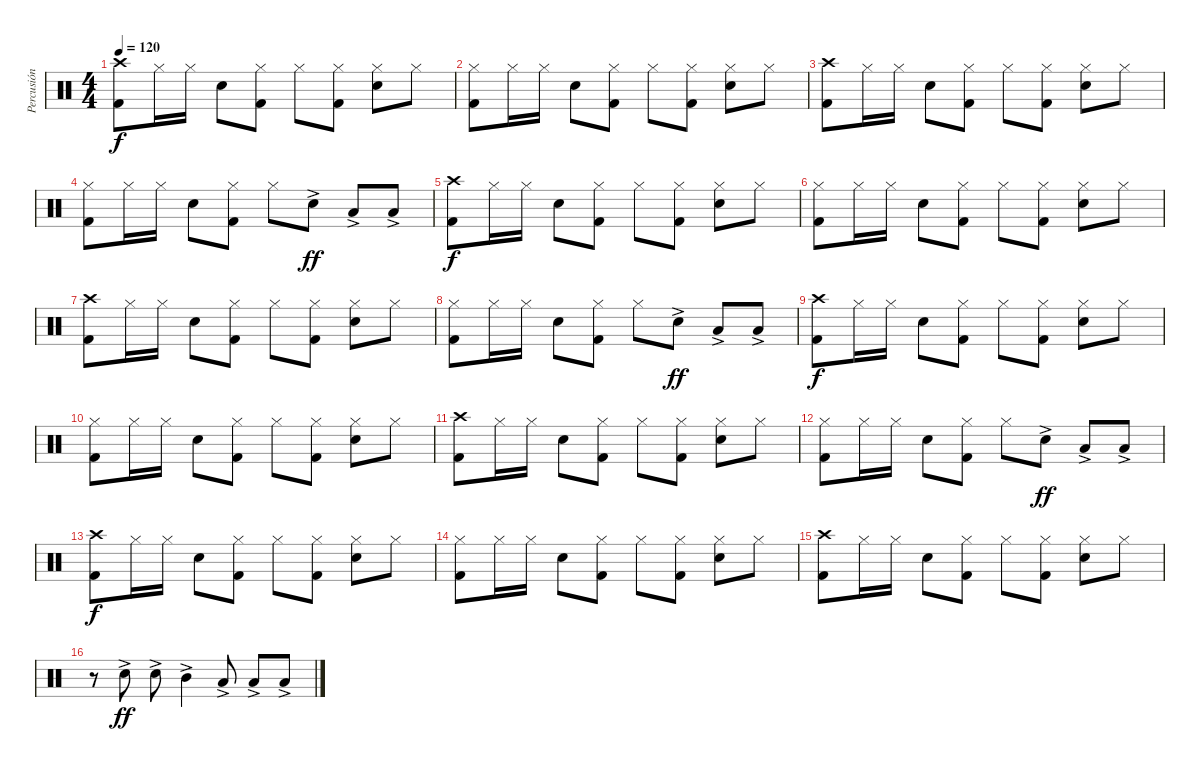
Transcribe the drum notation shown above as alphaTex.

\track ("Percusión" "Percusión") {instrument percussion}
\staff {score}
\articulation defaults
\ts (4 4)
\tempo 120
\clef neutral
\ks c
("Crash high (hit)" "Kick (hit) 2").8{dy f} "Hi-Hat (closed)".16 "Hi-Hat (closed)".16 "Snare (hit) 2".8 ("Hi-Hat (closed)" "Kick (hit) 2").8 "Hi-Hat (closed)".8 ("Hi-Hat (closed)" "Kick (hit) 2").8 ("Hi-Hat (closed)" "Snare (hit) 2").8 "Hi-Hat (closed)".8 |
("Hi-Hat (closed)" "Kick (hit) 2").8 "Hi-Hat (closed)".16 "Hi-Hat (closed)".16 "Snare (hit) 2".8 ("Hi-Hat (closed)" "Kick (hit) 2").8 "Hi-Hat (closed)".8 ("Hi-Hat (closed)" "Kick (hit) 2").8 ("Hi-Hat (closed)" "Snare (hit) 2").8 "Hi-Hat (closed)".8 |
("Crash high (hit)" "Kick (hit) 2").8 "Hi-Hat (closed)".16 "Hi-Hat (closed)".16 "Snare (hit) 2".8 ("Hi-Hat (closed)" "Kick (hit) 2").8 "Hi-Hat (closed)".8 ("Hi-Hat (closed)" "Kick (hit) 2").8 ("Hi-Hat (closed)" "Snare (hit) 2").8 "Hi-Hat (closed)".8 |
("Hi-Hat (closed)" "Kick (hit) 2").8 "Hi-Hat (closed)".16 "Hi-Hat (closed)".16 "Snare (hit) 2".8 ("Hi-Hat (closed)" "Kick (hit) 2").8 "Hi-Hat (closed)".8 "Snare (hit) 2"{ac}.8{dy ff} "Low Tom (hit)"{ac}.8 "Low Floor Tom (hit)"{ac}.8 |
("Crash high (hit)" "Kick (hit) 2").8{dy f} "Hi-Hat (closed)".16 "Hi-Hat (closed)".16 "Snare (hit) 2".8 ("Hi-Hat (closed)" "Kick (hit) 2").8 "Hi-Hat (closed)".8 ("Hi-Hat (closed)" "Kick (hit) 2").8 ("Hi-Hat (closed)" "Snare (hit) 2").8 "Hi-Hat (closed)".8 |
("Hi-Hat (closed)" "Kick (hit) 2").8 "Hi-Hat (closed)".16 "Hi-Hat (closed)".16 "Snare (hit) 2".8 ("Hi-Hat (closed)" "Kick (hit) 2").8 "Hi-Hat (closed)".8 ("Hi-Hat (closed)" "Kick (hit) 2").8 ("Hi-Hat (closed)" "Snare (hit) 2").8 "Hi-Hat (closed)".8 |
("Crash high (hit)" "Kick (hit) 2").8 "Hi-Hat (closed)".16 "Hi-Hat (closed)".16 "Snare (hit) 2".8 ("Hi-Hat (closed)" "Kick (hit) 2").8 "Hi-Hat (closed)".8 ("Hi-Hat (closed)" "Kick (hit) 2").8 ("Hi-Hat (closed)" "Snare (hit) 2").8 "Hi-Hat (closed)".8 |
("Hi-Hat (closed)" "Kick (hit) 2").8 "Hi-Hat (closed)".16 "Hi-Hat (closed)".16 "Snare (hit) 2".8 ("Hi-Hat (closed)" "Kick (hit) 2").8 "Hi-Hat (closed)".8 "Snare (hit) 2"{ac}.8{dy ff} "Low Tom (hit)"{ac}.8 "Low Floor Tom (hit)"{ac}.8 |
("Crash high (hit)" "Kick (hit) 2").8{dy f} "Hi-Hat (closed)".16 "Hi-Hat (closed)".16 "Snare (hit) 2".8 ("Hi-Hat (closed)" "Kick (hit) 2").8 "Hi-Hat (closed)".8 ("Hi-Hat (closed)" "Kick (hit) 2").8 ("Hi-Hat (closed)" "Snare (hit) 2").8 "Hi-Hat (closed)".8 |
("Hi-Hat (closed)" "Kick (hit) 2").8 "Hi-Hat (closed)".16 "Hi-Hat (closed)".16 "Snare (hit) 2".8 ("Hi-Hat (closed)" "Kick (hit) 2").8 "Hi-Hat (closed)".8 ("Hi-Hat (closed)" "Kick (hit) 2").8 ("Hi-Hat (closed)" "Snare (hit) 2").8 "Hi-Hat (closed)".8 |
("Crash high (hit)" "Kick (hit) 2").8 "Hi-Hat (closed)".16 "Hi-Hat (closed)".16 "Snare (hit) 2".8 ("Hi-Hat (closed)" "Kick (hit) 2").8 "Hi-Hat (closed)".8 ("Hi-Hat (closed)" "Kick (hit) 2").8 ("Hi-Hat (closed)" "Snare (hit) 2").8 "Hi-Hat (closed)".8 |
("Hi-Hat (closed)" "Kick (hit) 2").8 "Hi-Hat (closed)".16 "Hi-Hat (closed)".16 "Snare (hit) 2".8 ("Hi-Hat (closed)" "Kick (hit) 2").8 "Hi-Hat (closed)".8 "Snare (hit) 2"{ac}.8{dy ff} "Low Tom (hit)"{ac}.8 "Low Floor Tom (hit)"{ac}.8 |
("Crash high (hit)" "Kick (hit) 2").8{dy f} "Hi-Hat (closed)".16 "Hi-Hat (closed)".16 "Snare (hit) 2".8 ("Hi-Hat (closed)" "Kick (hit) 2").8 "Hi-Hat (closed)".8 ("Hi-Hat (closed)" "Kick (hit) 2").8 ("Hi-Hat (closed)" "Snare (hit) 2").8 "Hi-Hat (closed)".8 |
("Hi-Hat (closed)" "Kick (hit) 2").8 "Hi-Hat (closed)".16 "Hi-Hat (closed)".16 "Snare (hit) 2".8 ("Hi-Hat (closed)" "Kick (hit) 2").8 "Hi-Hat (closed)".8 ("Hi-Hat (closed)" "Kick (hit) 2").8 ("Hi-Hat (closed)" "Snare (hit) 2").8 "Hi-Hat (closed)".8 |
("Crash high (hit)" "Kick (hit) 2").8 "Hi-Hat (closed)".16 "Hi-Hat (closed)".16 "Snare (hit) 2".8 ("Hi-Hat (closed)" "Kick (hit) 2").8 "Hi-Hat (closed)".8 ("Hi-Hat (closed)" "Kick (hit) 2").8 ("Hi-Hat (closed)" "Snare (hit) 2").8 "Hi-Hat (closed)".8 |
r.8 "Snare (hit) 2"{ac}.8{dy ff} "Snare (hit) 2"{ac}.8 "Mid Tom (hit)"{ac}.4 "Low Tom (hit)"{ac}.8 "Low Tom (hit)"{ac}.8 "Low Floor Tom (hit)"{ac}.8
